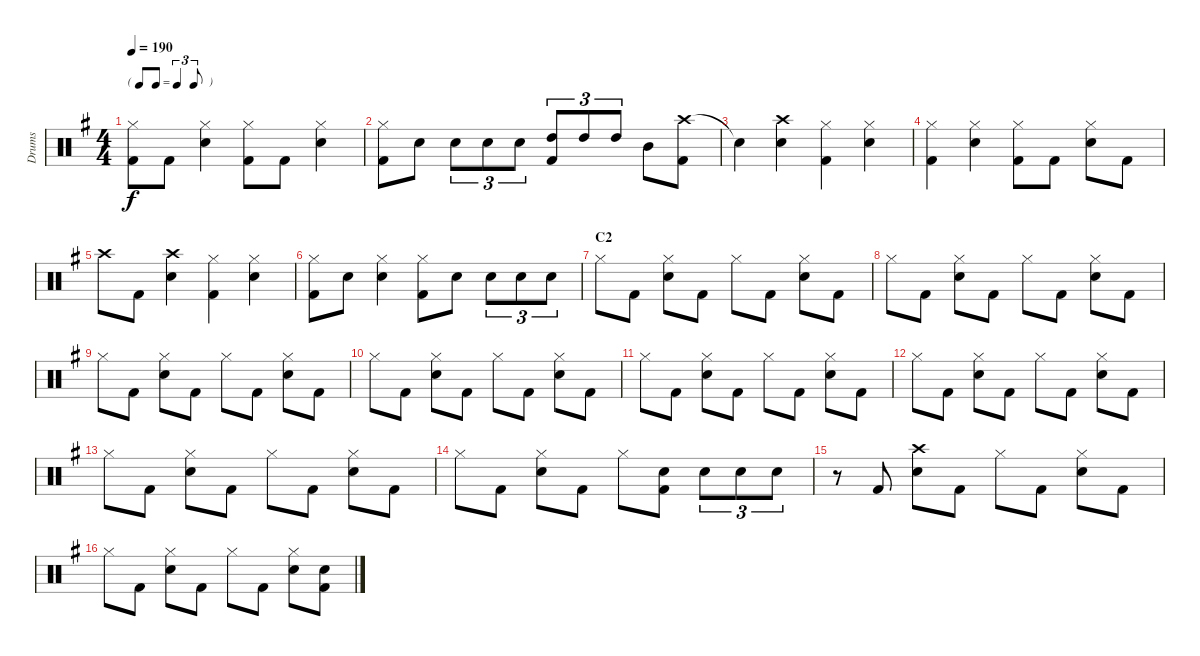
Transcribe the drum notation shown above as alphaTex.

\track ("Drums" "Drums") {instrument percussion}
\staff {score}
\articulation defaults
\ts (4 4)
\tf triplet8th
\tempo 190
\clef neutral
\ks g
("Hi-Hat (closed)" "Kick (hit) 2").8{dy f} "Kick (hit) 2".8 ("Hi-Hat (closed)" "Snare (hit) 2").4 ("Hi-Hat (closed)" "Kick (hit) 2").8 "Kick (hit) 2".8 ("Hi-Hat (closed)" "Snare (hit) 2").4 |
("Hi-Hat (closed)" "Kick (hit) 2").8 "Snare (hit) 2".8 "Snare (hit) 2".8{tu (3 2)} "Snare (hit) 2".8{tu (3 2)} "Snare (hit) 2".8{tu (3 2)} ("High Tom (hit)" "Kick (hit) 2").8{tu (3 2)} "High Tom (hit)".8{tu (3 2)} "High Tom (hit)".8{tu (3 2)} "Mid Tom (hit)".8 ("Crash high (hit)" "Kick (hit) 2").8 |
"Snare (hit)"{t}.4 ("Crash high (hit)" "Snare (hit) 2").4 ("Hi-Hat (closed)" "Kick (hit) 2").4 ("Hi-Hat (closed)" "Snare (hit) 2").4 |
("Hi-Hat (closed)" "Kick (hit) 2").4 ("Hi-Hat (closed)" "Snare (hit) 2").4 ("Hi-Hat (closed)" "Kick (hit) 2").8 "Kick (hit) 2".8 ("Hi-Hat (closed)" "Snare (hit) 2").8 "Kick (hit) 2".8 |
"Crash high (hit)".8 "Kick (hit) 2".8 ("Crash high (hit)" "Snare (hit) 2").4 ("Hi-Hat (closed)" "Kick (hit) 2").4 ("Hi-Hat (closed)" "Snare (hit) 2").4 |
("Hi-Hat (closed)" "Kick (hit) 2").8 "Snare (hit) 2".8 ("Hi-Hat (closed)" "Snare (hit) 2").4 ("Hi-Hat (closed)" "Kick (hit) 2").8 "Snare (hit) 2".8 "Snare (hit) 2".8{tu (3 2)} "Snare (hit) 2".8{tu (3 2)} "Snare (hit) 2".8{tu (3 2)} |
\section ("" "C2")
"Hi-Hat (closed)".8 "Kick (hit) 2".8 ("Hi-Hat (closed)" "Snare (hit) 2").8 "Kick (hit) 2".8 "Hi-Hat (closed)".8 "Kick (hit) 2".8 ("Hi-Hat (closed)" "Snare (hit) 2").8 "Kick (hit) 2".8 |
"Hi-Hat (closed)".8 "Kick (hit) 2".8 ("Hi-Hat (closed)" "Snare (hit) 2").8 "Kick (hit) 2".8 "Hi-Hat (closed)".8 "Kick (hit) 2".8 ("Hi-Hat (closed)" "Snare (hit) 2").8 "Kick (hit) 2".8 |
"Hi-Hat (closed)".8 "Kick (hit) 2".8 ("Hi-Hat (closed)" "Snare (hit) 2").8 "Kick (hit) 2".8 "Hi-Hat (closed)".8 "Kick (hit) 2".8 ("Hi-Hat (closed)" "Snare (hit) 2").8 "Kick (hit) 2".8 |
"Hi-Hat (closed)".8 "Kick (hit) 2".8 ("Hi-Hat (closed)" "Snare (hit) 2").8 "Kick (hit) 2".8 "Hi-Hat (closed)".8 "Kick (hit) 2".8 ("Hi-Hat (closed)" "Snare (hit) 2").8 "Kick (hit) 2".8 |
"Hi-Hat (closed)".8 "Kick (hit) 2".8 ("Hi-Hat (closed)" "Snare (hit) 2").8 "Kick (hit) 2".8 "Hi-Hat (closed)".8 "Kick (hit) 2".8 ("Hi-Hat (closed)" "Snare (hit) 2").8 "Kick (hit) 2".8 |
"Hi-Hat (closed)".8 "Kick (hit) 2".8 ("Hi-Hat (closed)" "Snare (hit) 2").8 "Kick (hit) 2".8 "Hi-Hat (closed)".8 "Kick (hit) 2".8 ("Hi-Hat (closed)" "Snare (hit) 2").8 "Kick (hit) 2".8 |
"Hi-Hat (closed)".8 "Kick (hit) 2".8 ("Hi-Hat (closed)" "Snare (hit) 2").8 "Kick (hit) 2".8 "Hi-Hat (closed)".8 "Kick (hit) 2".8 ("Hi-Hat (closed)" "Snare (hit) 2").8 "Kick (hit) 2".8 |
"Hi-Hat (closed)".8 "Kick (hit) 2".8 ("Hi-Hat (closed)" "Snare (hit) 2").8 "Kick (hit) 2".8 "Hi-Hat (closed)".8 ("Snare (hit) 2" "Kick (hit) 2").8 "Snare (hit) 2".8{tu (3 2)} "Snare (hit) 2".8{tu (3 2)} "Snare (hit) 2".8{tu (3 2)} |
r.8 "Kick (hit) 2".8 ("Crash high (hit)" "Snare (hit) 2").8 "Kick (hit) 2".8 "Hi-Hat (closed)".8 "Kick (hit) 2".8 ("Hi-Hat (closed)" "Snare (hit) 2").8 "Kick (hit) 2".8 |
"Hi-Hat (closed)".8 "Kick (hit) 2".8 ("Hi-Hat (closed)" "Snare (hit) 2").8 "Kick (hit) 2".8 "Hi-Hat (closed)".8 "Kick (hit) 2".8 ("Hi-Hat (closed)" "Snare (hit) 2").8 ("Snare (hit) 2" "Kick (hit) 2").8
